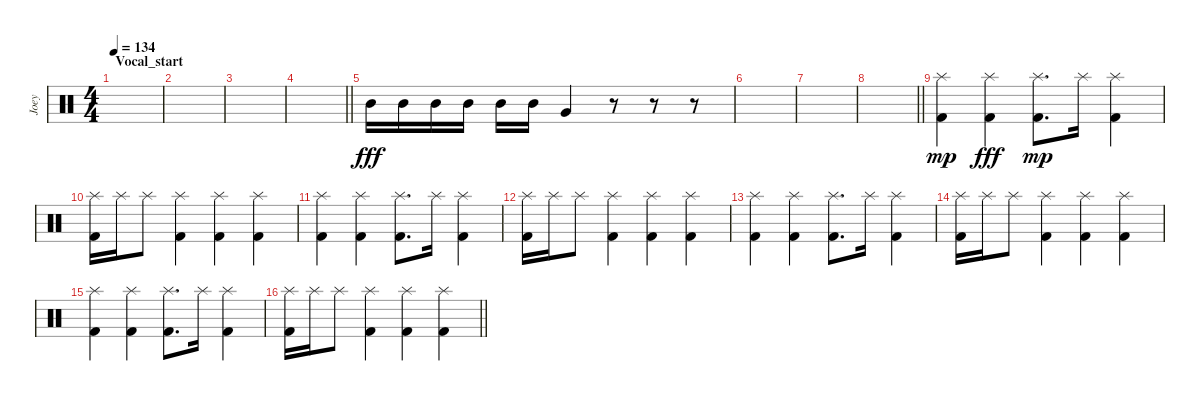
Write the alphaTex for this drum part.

\track ("Joey" "Joey") {instrument percussion}
\staff {score}
\articulation defaults
\ts (4 4)
\section ("" "Vocal_start")
\tempo 134
\clef neutral
\ks c
|
|
|
\barLineRight lightlight
|
"Mid Tom (hit)".16{dy fff} "Mid Tom (hit)".16 "Mid Tom (hit)".16 "Mid Tom (hit)".16 "Mid Tom (hit)".16 "Mid Tom (hit)".16 "Very Low Tom (hit)".4 r.8 r.8 r.8 |
|
|
\barLineRight lightlight
|
\section ("" "")
("Splash (hit)" "Kick (hit) 2").4{dy mp} ("Splash (hit)" "Kick (hit) 2").4{dy fff} ("Splash (hit)" "Kick (hit) 2").8{d dy mp} "Splash (hit)".16 ("Splash (hit)" "Kick (hit) 2").4 |
("Splash (hit)" "Kick (hit) 2").16 "Splash (hit)".16 "Splash (hit)".8 ("Splash (hit)" "Kick (hit) 2").4 ("Splash (hit)" "Kick (hit) 2").4 ("Splash (hit)" "Kick (hit) 2").4 |
("Splash (hit)" "Kick (hit) 2").4 ("Splash (hit)" "Kick (hit) 2").4 ("Splash (hit)" "Kick (hit) 2").8{d} "Splash (hit)".16 ("Splash (hit)" "Kick (hit) 2").4 |
("Splash (hit)" "Kick (hit) 2").16 "Splash (hit)".16 "Splash (hit)".8 ("Splash (hit)" "Kick (hit) 2").4 ("Splash (hit)" "Kick (hit) 2").4 ("Splash (hit)" "Kick (hit) 2").4 |
("Splash (hit)" "Kick (hit) 2").4 ("Splash (hit)" "Kick (hit) 2").4 ("Splash (hit)" "Kick (hit) 2").8{d} "Splash (hit)".16 ("Splash (hit)" "Kick (hit) 2").4 |
("Splash (hit)" "Kick (hit) 2").16 "Splash (hit)".16 "Splash (hit)".8 ("Splash (hit)" "Kick (hit) 2").4 ("Splash (hit)" "Kick (hit) 2").4 ("Splash (hit)" "Kick (hit) 2").4 |
("Splash (hit)" "Kick (hit) 2").4 ("Splash (hit)" "Kick (hit) 2").4 ("Splash (hit)" "Kick (hit) 2").8{d} "Splash (hit)".16 ("Splash (hit)" "Kick (hit) 2").4 |
\barLineRight lightlight
("Splash (hit)" "Kick (hit) 2").16 "Splash (hit)".16 "Splash (hit)".8 ("Splash (hit)" "Kick (hit) 2").4 ("Splash (hit)" "Kick (hit) 2").4 ("Splash (hit)" "Kick (hit) 2").4
